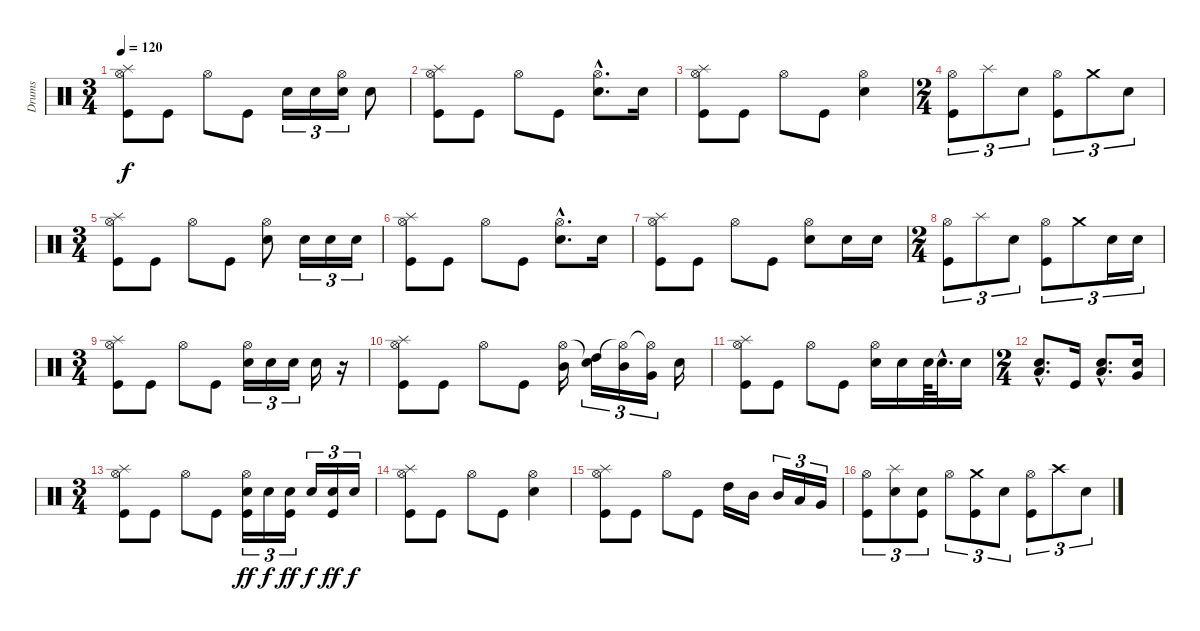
\track ("Drums" "Drums") {instrument percussion}
\staff {score}
\articulation defaults
\ts (3 4)
\tempo 120
\clef neutral
\ks c
("Splash (hit)" "Hi-Hat (open)" "Kick (hit)").8{dy f} "Kick (hit)".8 "Hi-Hat (open)".8 "Kick (hit)".8 "Snare (hit) 2".16{tu (3 2)} "Snare (hit) 2".16{tu (3 2)} ("Hi-Hat (open)" "Snare (hit) 2").16{tu (3 2)} "Snare (hit) 2".8 |
("Splash (hit)" "Hi-Hat (open)" "Kick (hit)").8 "Kick (hit)".8 "Hi-Hat (open)".8 "Kick (hit)".8 ("Hi-Hat (open)"{hac} "Snare (hit) 2"{hac}).8{d} "Snare (hit) 2".16 |
("Splash (hit)" "Hi-Hat (open)" "Kick (hit)").8 "Kick (hit)".8 "Hi-Hat (open)".8 "Kick (hit)".8 ("Hi-Hat (open)" "Snare (hit) 2").4 |
\ts (2 4)
("Hi-Hat (open)" "Kick (hit)").8{tu (3 2)} "Splash (hit)".8{tu (3 2)} "Snare (hit) 2".8{tu (3 2)} ("Hi-Hat (open)" "Kick (hit)").8{tu (3 2)} "Crash medium (hit)".8{tu (3 2)} "Snare (hit) 2".8{tu (3 2)} |
\ts (3 4)
("Splash (hit)" "Hi-Hat (open)" "Kick (hit)").8 "Kick (hit)".8 "Hi-Hat (open)".8 "Kick (hit)".8 ("Hi-Hat (open)" "Snare (hit) 2").8 "Snare (hit) 2".16{tu (3 2)} "Snare (hit) 2".16{tu (3 2)} "Snare (hit) 2".16{tu (3 2)} |
("Splash (hit)" "Hi-Hat (open)" "Kick (hit)").8 "Kick (hit)".8 "Hi-Hat (open)".8 "Kick (hit)".8 ("Hi-Hat (open)"{hac} "Snare (hit) 2"{hac}).8{d} "Snare (hit) 2".16 |
("Splash (hit)" "Hi-Hat (open)" "Kick (hit)").8 "Kick (hit)".8 "Hi-Hat (open)".8 "Kick (hit)".8 ("Hi-Hat (open)" "Snare (hit) 2").8 "Snare (hit) 2".16 "Snare (hit) 2".16 |
\ts (2 4)
("Hi-Hat (open)" "Kick (hit)").8{tu (3 2)} "Splash (hit)".8{tu (3 2)} "Snare (hit) 2".8{tu (3 2)} ("Hi-Hat (open)" "Kick (hit)").8{tu (3 2)} "Crash medium (hit)".8{tu (3 2)} "Snare (hit) 2".16{tu (3 2)} "Snare (hit) 2".16{tu (3 2)} |
\ts (3 4)
("Splash (hit)" "Hi-Hat (open)" "Kick (hit)").8 "Kick (hit)".8 "Hi-Hat (open)".8 "Kick (hit)".8 ("Hi-Hat (open)" "Snare (hit) 2").16{tu (3 2)} "Snare (hit) 2".16{tu (3 2)} "Snare (hit) 2".16{tu (3 2)} "Snare (hit) 2".16 r.16 |
("Splash (hit)" "Hi-Hat (open)" "Kick (hit)").8 "Kick (hit)".8 "Hi-Hat (open)".8 "Kick (hit)".8 ("Hi-Hat (open)" "Mid Tom (hit)").16 ("Snare (hit)"{t} "High Tom (hit)").16{tu (3 2)} ("Hi-Hat (open)"{t} "Mid Tom (hit)").16{tu (3 2)} ("Hi-Hat (open)"{t} "Very Low Tom (hit)").16{tu (3 2)} "Snare (hit) 2".16 |
("Splash (hit)" "Hi-Hat (open)" "Kick (hit)").8 "Kick (hit)".8 "Hi-Hat (open)".8 "Kick (hit)".8 ("Hi-Hat (open)" "Snare (hit) 2").16 "Snare (hit) 2".16 "Snare (hit) 2".64 "Snare (hit) 2"{hac}.32{d} "Snare (hit) 2".16 |
\ts (2 4)
("Low Tom (hit)"{hac} "Snare (hit) 2"{hac}).8{d} "Kick (hit)".16 ("Low Tom (hit)"{hac} "Snare (hit) 2"{hac}).8{d} ("Very Low Tom (hit)" "Snare (hit) 2").16 |
\ts (3 4)
("Splash (hit)" "Hi-Hat (open)" "Kick (hit)").8 "Kick (hit)".8 "Hi-Hat (open)".8 "Kick (hit)".8 ("Hi-Hat (open)" "Snare (hit) 2" "Kick (hit)").16{tu (3 2) dy ff} "Snare (hit) 2".16{tu (3 2) dy f} ("Snare (hit) 2" "Kick (hit)").16{tu (3 2) dy ff} "Snare (hit) 2".16{tu (3 2) dy f} ("Snare (hit) 2" "Kick (hit)").16{tu (3 2) dy ff} "Snare (hit) 2".16{tu (3 2) dy f} |
("Splash (hit)" "Hi-Hat (open)" "Kick (hit)").8 "Kick (hit)".8 "Hi-Hat (open)".8 "Kick (hit)".8 ("Hi-Hat (open)" "Snare (hit) 2").4 |
("Splash (hit)" "Hi-Hat (open)" "Kick (hit)").8 "Kick (hit)".8 "Hi-Hat (open)".8 "Kick (hit)".8 "High Tom (hit)".16 "Mid Tom (hit)".16 "Mid Tom (hit)".16{tu (3 2)} "Low Tom (hit)".16{tu (3 2)} "Very Low Tom (hit)".16{tu (3 2)} |
("Hi-Hat (open)" "Kick (hit)").8{tu (3 2)} ("Splash (hit)" "Snare (hit) 2").8{tu (3 2)} ("Snare (hit) 2" "Kick (hit)").8{tu (3 2)} "Hi-Hat (open)".8{tu (3 2)} ("Crash medium (hit)" "Kick (hit)").8{tu (3 2)} "Snare (hit) 2".8{tu (3 2)} ("Hi-Hat (open)" "Kick (hit)").8{tu (3 2)} "Crash high (hit)".8{tu (3 2)} "Snare (hit) 2".8{tu (3 2)}
